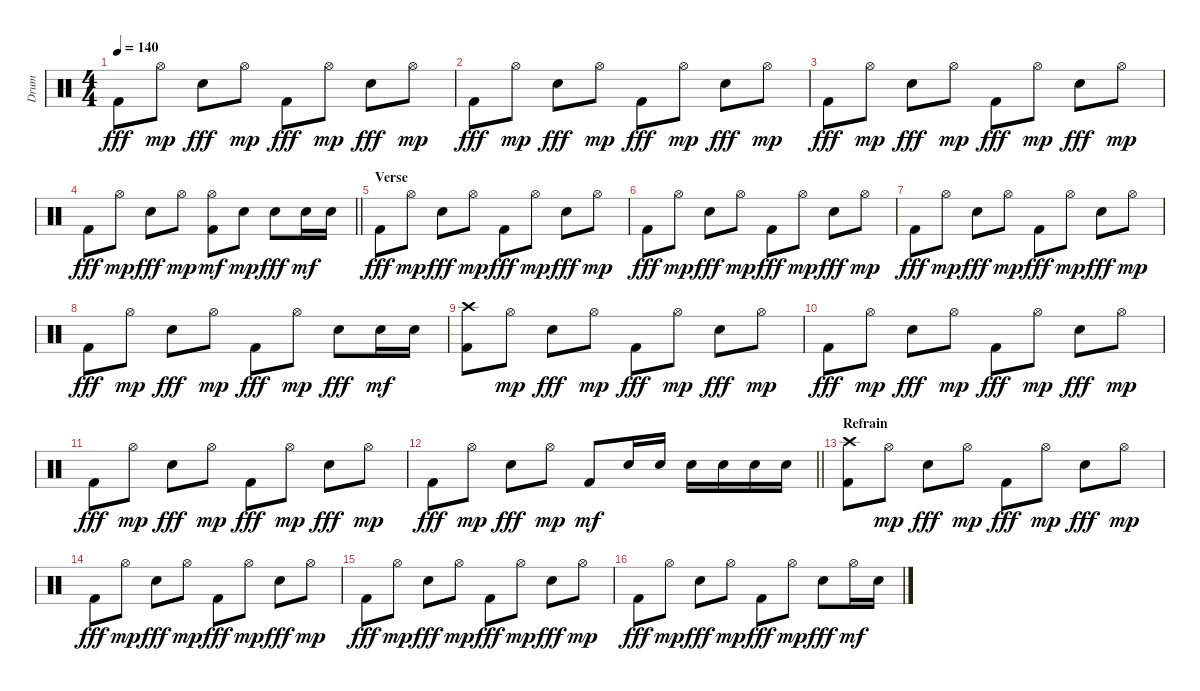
\track ("Drum" "Drum") {instrument percussion}
\staff {score}
\articulation defaults
\ts (4 4)
\tempo 140
\clef neutral
\ks c "Kick (hit) 2".8{dy fff} "Hi-Hat (open)".8{dy mp} "Electric Snare (hit)".8{dy fff} "Hi-Hat (open)".8{dy mp} "Kick (hit) 2".8{dy fff} "Hi-Hat (open)".8{dy mp} "Electric Snare (hit)".8{dy fff} "Hi-Hat (open)".8{dy mp}
|
"Kick (hit) 2".8{dy fff} "Hi-Hat (open)".8{dy mp} "Electric Snare (hit)".8{dy fff} "Hi-Hat (open)".8{dy mp} "Kick (hit) 2".8{dy fff} "Hi-Hat (open)".8{dy mp} "Electric Snare (hit)".8{dy fff} "Hi-Hat (open)".8{dy mp} |
"Kick (hit) 2".8{dy fff} "Hi-Hat (open)".8{dy mp} "Electric Snare (hit)".8{dy fff} "Hi-Hat (open)".8{dy mp} "Kick (hit) 2".8{dy fff} "Hi-Hat (open)".8{dy mp} "Electric Snare (hit)".8{dy fff} "Hi-Hat (open)".8{dy mp} |
\barLineRight lightlight "Kick (hit) 2".8{dy fff} "Hi-Hat (open)".8{dy mp} "Electric Snare (hit)".8{dy fff} "Hi-Hat (open)".8{dy mp}
("Kick (hit) 2" "Hi-Hat (open)").8{dy mf} "Electric Snare (hit)".8{dy mp} "Electric Snare (hit)".8{dy fff} "Electric Snare (hit)".16{dy mf} "Electric Snare (hit)".16 |
\section ("" "Verse")
"Kick (hit) 2".8{dy fff} "Hi-Hat (open)".8{dy mp} "Electric Snare (hit)".8{dy fff} "Hi-Hat (open)".8{dy mp} "Kick (hit) 2".8{dy fff} "Hi-Hat (open)".8{dy mp} "Electric Snare (hit)".8{dy fff} "Hi-Hat (open)".8{dy mp} |
"Kick (hit) 2".8{dy fff} "Hi-Hat (open)".8{dy mp} "Electric Snare (hit)".8{dy fff} "Hi-Hat (open)".8{dy mp} "Kick (hit) 2".8{dy fff} "Hi-Hat (open)".8{dy mp} "Electric Snare (hit)".8{dy fff} "Hi-Hat (open)".8{dy mp} |
"Kick (hit) 2".8{dy fff} "Hi-Hat (open)".8{dy mp} "Electric Snare (hit)".8{dy fff} "Hi-Hat (open)".8{dy mp} "Kick (hit) 2".8{dy fff} "Hi-Hat (open)".8{dy mp} "Electric Snare (hit)".8{dy fff} "Hi-Hat (open)".8{dy mp} |
"Kick (hit) 2".8{dy fff} "Hi-Hat (open)".8{dy mp} "Electric Snare (hit)".8{dy fff} "Hi-Hat (open)".8{dy mp} "Kick (hit) 2".8{dy fff} "Hi-Hat (open)".8{dy mp} "Electric Snare (hit)".8{dy fff} "Electric Snare (hit)".16{dy mf} "Electric Snare (hit)".16 |
("Kick (hit) 2" "Crash high (hit)").8 "Hi-Hat (open)".8{dy mp} "Electric Snare (hit)".8{dy fff} "Hi-Hat (open)".8{dy mp} "Kick (hit) 2".8{dy fff} "Hi-Hat (open)".8{dy mp} "Electric Snare (hit)".8{dy fff} "Hi-Hat (open)".8{dy mp} |
"Kick (hit) 2".8{dy fff} "Hi-Hat (open)".8{dy mp} "Electric Snare (hit)".8{dy fff} "Hi-Hat (open)".8{dy mp} "Kick (hit) 2".8{dy fff} "Hi-Hat (open)".8{dy mp} "Electric Snare (hit)".8{dy fff} "Hi-Hat (open)".8{dy mp} |
"Kick (hit) 2".8{dy fff} "Hi-Hat (open)".8{dy mp} "Electric Snare (hit)".8{dy fff} "Hi-Hat (open)".8{dy mp} "Kick (hit) 2".8{dy fff} "Hi-Hat (open)".8{dy mp} "Electric Snare (hit)".8{dy fff} "Hi-Hat (open)".8{dy mp} |
\barLineRight lightlight "Kick (hit) 2".8{dy fff} "Hi-Hat (open)".8{dy mp} "Electric Snare (hit)".8{dy fff} "Hi-Hat (open)".8{dy mp} "Kick (hit) 2".8{dy mf} "Electric Snare (hit)".16 "Electric Snare (hit)".16 "Electric Snare (hit)".16 "Electric Snare (hit)".16 "Electric Snare (hit)".16 "Electric Snare (hit)".16
|
\section ("" "Refrain")
("Kick (hit) 2" "Crash high (hit)").8 "Hi-Hat (open)".8{dy mp} "Electric Snare (hit)".8{dy fff} "Hi-Hat (open)".8{dy mp} "Kick (hit) 2".8{dy fff} "Hi-Hat (open)".8{dy mp} "Electric Snare (hit)".8{dy fff} "Hi-Hat (open)".8{dy mp} |
"Kick (hit) 2".8{dy fff} "Hi-Hat (open)".8{dy mp} "Electric Snare (hit)".8{dy fff} "Hi-Hat (open)".8{dy mp} "Kick (hit) 2".8{dy fff} "Hi-Hat (open)".8{dy mp} "Electric Snare (hit)".8{dy fff} "Hi-Hat (open)".8{dy mp} |
"Kick (hit) 2".8{dy fff} "Hi-Hat (open)".8{dy mp} "Electric Snare (hit)".8{dy fff} "Hi-Hat (open)".8{dy mp} "Kick (hit) 2".8{dy fff} "Hi-Hat (open)".8{dy mp} "Electric Snare (hit)".8{dy fff} "Hi-Hat (open)".8{dy mp} |
"Kick (hit) 2".8{dy fff} "Hi-Hat (open)".8{dy mp} "Electric Snare (hit)".8{dy fff} "Hi-Hat (open)".8{dy mp} "Kick (hit) 2".8{dy fff} "Hi-Hat (open)".8{dy mp} "Electric Snare (hit)".8{dy fff} "Hi-Hat (open)".16{dy mf} "Electric Snare (hit)".16
